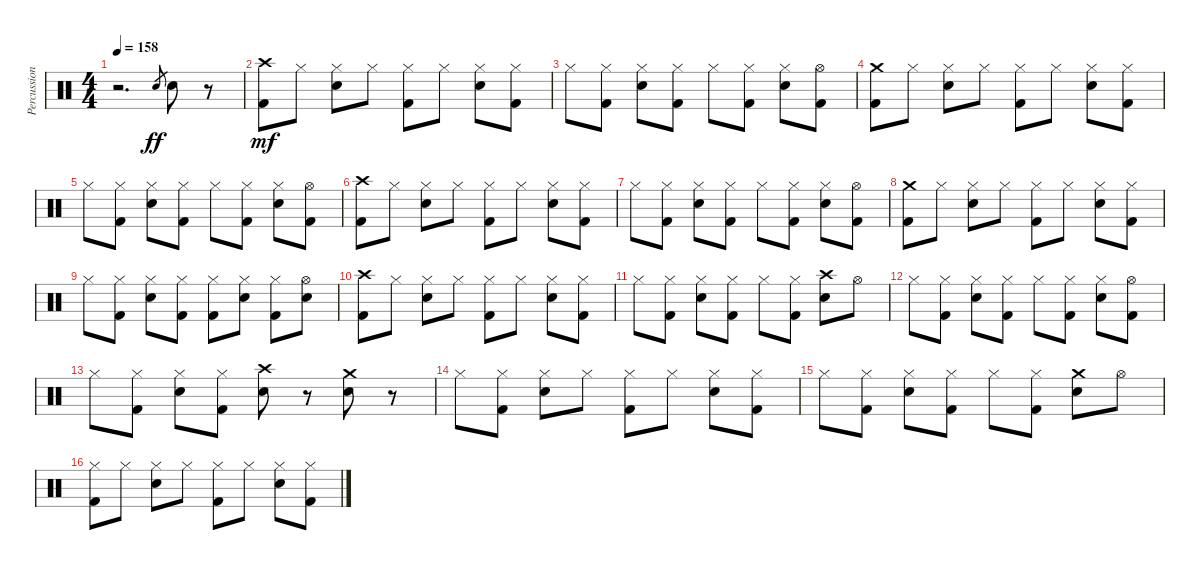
\track ("Percussions" "Percussion") {instrument percussion}
\staff {score}
\articulation defaults
\ts (4 4)
\tempo 158
\clef neutral
\ks c
r.2{d dy ff} "Electric Snare (hit)".8{gr} "Electric Snare (hit)".8 r.8 |
("Crash high (hit)" "Kick (hit) 2").8{dy mf} "Hi-Hat (closed)".8 ("Hi-Hat (closed)" "Electric Snare (hit)").8 "Hi-Hat (closed)".8 ("Hi-Hat (closed)" "Kick (hit) 2").8 "Hi-Hat (closed)".8 ("Hi-Hat (closed)" "Electric Snare (hit)").8 ("Hi-Hat (closed)" "Kick (hit) 2").8 |
"Hi-Hat (closed)".8 ("Hi-Hat (closed)" "Kick (hit) 2").8 ("Hi-Hat (closed)" "Electric Snare (hit)").8 ("Hi-Hat (closed)" "Kick (hit) 2").8 "Hi-Hat (closed)".8 ("Hi-Hat (closed)" "Kick (hit) 2").8 ("Hi-Hat (closed)" "Electric Snare (hit)").8 ("Hi-Hat (open)" "Kick (hit) 2").8 |
("Crash medium (hit)" "Kick (hit) 2").8 "Hi-Hat (closed)".8 ("Hi-Hat (closed)" "Electric Snare (hit)").8 "Hi-Hat (closed)".8 ("Hi-Hat (closed)" "Kick (hit) 2").8 "Hi-Hat (closed)".8 ("Hi-Hat (closed)" "Electric Snare (hit)").8 ("Hi-Hat (closed)" "Kick (hit) 2").8 |
"Hi-Hat (closed)".8 ("Hi-Hat (closed)" "Kick (hit) 2").8 ("Hi-Hat (closed)" "Electric Snare (hit)").8 ("Hi-Hat (closed)" "Kick (hit) 2").8 "Hi-Hat (closed)".8 ("Hi-Hat (closed)" "Kick (hit) 2").8 ("Hi-Hat (closed)" "Electric Snare (hit)").8 ("Hi-Hat (open)" "Kick (hit) 2").8 |
("Crash high (hit)" "Kick (hit) 2").8 "Hi-Hat (closed)".8 ("Hi-Hat (closed)" "Electric Snare (hit)").8 "Hi-Hat (closed)".8 ("Hi-Hat (closed)" "Kick (hit) 2").8 "Hi-Hat (closed)".8 ("Hi-Hat (closed)" "Electric Snare (hit)").8 ("Hi-Hat (closed)" "Kick (hit) 2").8 |
"Hi-Hat (closed)".8 ("Hi-Hat (closed)" "Kick (hit) 2").8 ("Hi-Hat (closed)" "Electric Snare (hit)").8 ("Hi-Hat (closed)" "Kick (hit) 2").8 "Hi-Hat (closed)".8 ("Hi-Hat (closed)" "Kick (hit) 2").8 ("Hi-Hat (closed)" "Electric Snare (hit)").8 ("Hi-Hat (open)" "Kick (hit) 2").8 |
("Crash medium (hit)" "Kick (hit) 2").8 "Hi-Hat (closed)".8 ("Hi-Hat (closed)" "Electric Snare (hit)").8 "Hi-Hat (closed)".8 ("Hi-Hat (closed)" "Kick (hit) 2").8 "Hi-Hat (closed)".8 ("Hi-Hat (closed)" "Electric Snare (hit)").8 ("Hi-Hat (closed)" "Kick (hit) 2").8 |
"Hi-Hat (closed)".8 ("Hi-Hat (closed)" "Kick (hit) 2").8 ("Hi-Hat (closed)" "Electric Snare (hit)").8 ("Hi-Hat (closed)" "Kick (hit) 2").8 ("Hi-Hat (closed)" "Kick (hit) 2").8 ("Hi-Hat (closed)" "Electric Snare (hit)").8 ("Hi-Hat (closed)" "Kick (hit) 2").8 ("Hi-Hat (open)" "Electric Snare (hit)").8 |
("Crash high (hit)" "Kick (hit) 2").8 "Hi-Hat (closed)".8 ("Hi-Hat (closed)" "Electric Snare (hit)").8 "Hi-Hat (closed)".8 ("Hi-Hat (closed)" "Kick (hit) 2").8 "Hi-Hat (closed)".8 ("Hi-Hat (closed)" "Electric Snare (hit)").8 ("Hi-Hat (closed)" "Kick (hit) 2").8 |
"Hi-Hat (closed)".8 ("Hi-Hat (closed)" "Kick (hit) 2").8 ("Hi-Hat (closed)" "Electric Snare (hit)").8 ("Hi-Hat (closed)" "Kick (hit) 2").8 "Hi-Hat (closed)".8 ("Hi-Hat (closed)" "Kick (hit) 2").8 ("Crash high (hit)" "Electric Snare (hit)").8 "Hi-Hat (open)".8 |
"Hi-Hat (closed)".8 ("Hi-Hat (closed)" "Kick (hit) 2").8 ("Hi-Hat (closed)" "Electric Snare (hit)").8 ("Hi-Hat (closed)" "Kick (hit) 2").8 "Hi-Hat (closed)".8 ("Hi-Hat (closed)" "Kick (hit) 2").8 ("Hi-Hat (closed)" "Electric Snare (hit)").8 ("Hi-Hat (open)" "Kick (hit) 2").8 |
"Hi-Hat (closed)".8 ("Hi-Hat (closed)" "Kick (hit) 2").8 ("Hi-Hat (closed)" "Electric Snare (hit)").8 ("Hi-Hat (closed)" "Kick (hit) 2").8 ("Crash high (hit)" "Electric Snare (hit)").8 r.8 ("Crash medium (hit)" "Electric Snare (hit)").8 r.8 |
"Hi-Hat (closed)".8 ("Hi-Hat (closed)" "Kick (hit) 2").8 ("Hi-Hat (closed)" "Electric Snare (hit)").8 "Hi-Hat (closed)".8 ("Hi-Hat (closed)" "Kick (hit) 2").8 "Hi-Hat (closed)".8 ("Hi-Hat (closed)" "Electric Snare (hit)").8 ("Hi-Hat (closed)" "Kick (hit) 2").8 |
"Hi-Hat (closed)".8 ("Hi-Hat (closed)" "Kick (hit) 2").8 ("Hi-Hat (closed)" "Electric Snare (hit)").8 ("Hi-Hat (closed)" "Kick (hit) 2").8 "Hi-Hat (closed)".8 ("Hi-Hat (closed)" "Kick (hit) 2").8 ("Crash medium (hit)" "Electric Snare (hit)").8 "Hi-Hat (open)".8 |
("Hi-Hat (closed)" "Kick (hit) 2").8 "Hi-Hat (closed)".8 ("Hi-Hat (closed)" "Electric Snare (hit)").8 "Hi-Hat (closed)".8 ("Hi-Hat (closed)" "Kick (hit) 2").8 "Hi-Hat (closed)".8 ("Hi-Hat (closed)" "Electric Snare (hit)").8 ("Hi-Hat (closed)" "Kick (hit) 2").8
